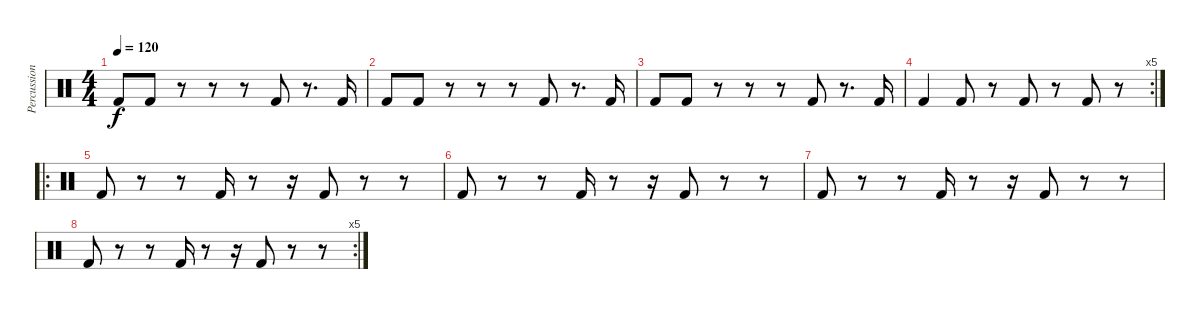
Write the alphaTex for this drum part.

\track ("Percussions" "Percussion") {instrument percussion}
\staff {score}
\articulation defaults
\ts (4 4)
\tempo 120
\clef neutral
\ks c "Kick (hit) 2".8{dy f} "Kick (hit) 2".8
r.8 r.8 r.8 "Kick (hit) 2".8 r.8{d} "Kick (hit) 2".16 |
"Kick (hit) 2".8 "Kick (hit) 2".8 r.8 r.8 r.8 "Kick (hit) 2".8 r.8{d} "Kick (hit) 2".16 |
"Kick (hit) 2".8 "Kick (hit) 2".8 r.8 r.8 r.8 "Kick (hit) 2".8 r.8{d} "Kick (hit) 2".16 |
\rc 5 "Kick (hit) 2".4 "Kick (hit) 2".8
r.8 "Kick (hit) 2".8 r.8 "Kick (hit) 2".8 r.8 |
\ro "Kick (hit) 2".8
r.8 r.8 "Kick (hit) 2".16 r.8 r.16 "Kick (hit) 2".8 r.8 r.8 |
"Kick (hit) 2".8 r.8 r.8 "Kick (hit) 2".16 r.8 r.16 "Kick (hit) 2".8 r.8 r.8 |
"Kick (hit) 2".8 r.8 r.8 "Kick (hit) 2".16 r.8 r.16 "Kick (hit) 2".8 r.8 r.8 |
\rc 5 "Kick (hit) 2".8
r.8 r.8 "Kick (hit) 2".16 r.8 r.16 "Kick (hit) 2".8 r.8 r.8
